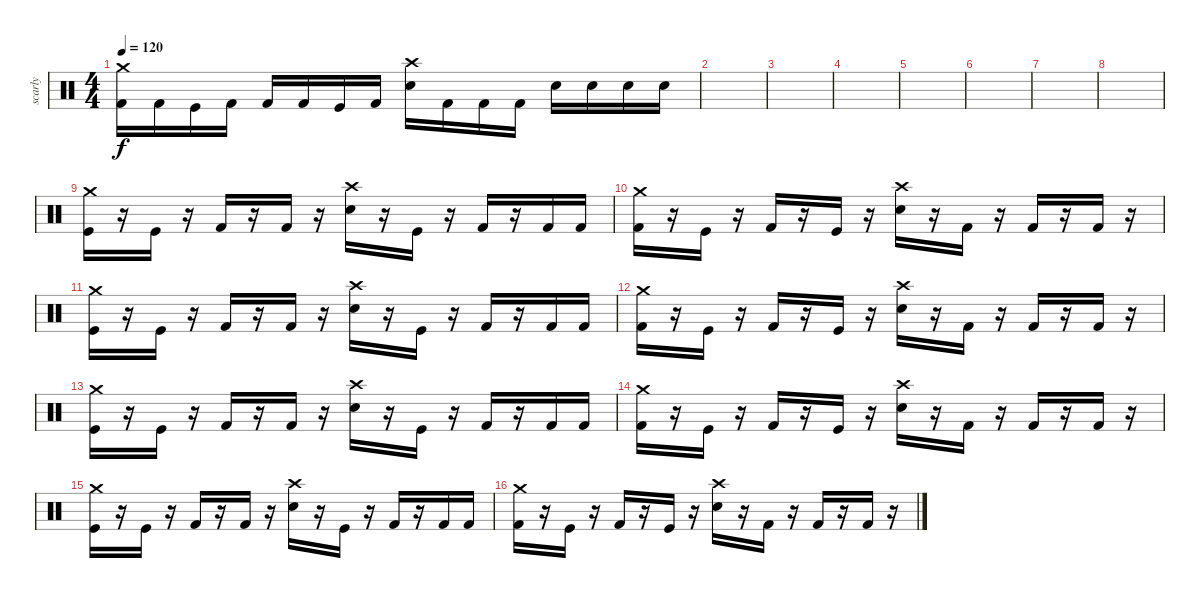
\track ("scarly" "scarly") {instrument percussion}
\staff {score}
\articulation defaults
\ts (4 4)
\tempo 120
\clef neutral
\ks c
("Kick (hit) 2" "Crash medium (hit)").16{dy f} "Kick (hit) 2".16 "Kick (hit)".16 "Kick (hit) 2".16 "Kick (hit) 2".16 "Kick (hit) 2".16 "Kick (hit)".16 "Kick (hit) 2".16 ("Snare (hit) 2" "Crash high (hit)").16 "Kick (hit) 2".16 "Kick (hit) 2".16 "Kick (hit) 2".16 "Snare (hit) 2".16 "Snare (hit) 2".16 "Snare (hit) 2".16 "Snare (hit) 2".16 |
|
|
|
|
|
|
|
("Kick (hit)" "Crash medium (hit)").16 r.16 "Kick (hit)".16 r.16 "Kick (hit) 2".16 r.16 "Kick (hit) 2".16 r.16 ("Snare (hit) 2" "Crash high (hit)").16 r.16 "Kick (hit)".16 r.16 "Kick (hit) 2".16 r.16 "Kick (hit) 2".16 "Kick (hit) 2".16 |
("Kick (hit) 2" "Crash medium (hit)").16 r.16 "Kick (hit)".16 r.16 "Kick (hit) 2".16 r.16 "Kick (hit)".16 r.16 ("Snare (hit) 2" "Crash high (hit)").16 r.16 "Kick (hit) 2".16 r.16 "Kick (hit) 2".16 r.16 "Kick (hit) 2".16 r.16 |
("Kick (hit)" "Crash medium (hit)").16 r.16 "Kick (hit)".16 r.16 "Kick (hit) 2".16 r.16 "Kick (hit) 2".16 r.16 ("Snare (hit) 2" "Crash high (hit)").16 r.16 "Kick (hit)".16 r.16 "Kick (hit) 2".16 r.16 "Kick (hit) 2".16 "Kick (hit) 2".16 |
("Kick (hit) 2" "Crash medium (hit)").16 r.16 "Kick (hit)".16 r.16 "Kick (hit) 2".16 r.16 "Kick (hit)".16 r.16 ("Snare (hit) 2" "Crash high (hit)").16 r.16 "Kick (hit) 2".16 r.16 "Kick (hit) 2".16 r.16 "Kick (hit) 2".16 r.16 |
("Kick (hit)" "Crash medium (hit)").16 r.16 "Kick (hit)".16 r.16 "Kick (hit) 2".16 r.16 "Kick (hit) 2".16 r.16 ("Snare (hit) 2" "Crash high (hit)").16 r.16 "Kick (hit)".16 r.16 "Kick (hit) 2".16 r.16 "Kick (hit) 2".16 "Kick (hit) 2".16 |
("Kick (hit) 2" "Crash medium (hit)").16 r.16 "Kick (hit)".16 r.16 "Kick (hit) 2".16 r.16 "Kick (hit)".16 r.16 ("Snare (hit) 2" "Crash high (hit)").16 r.16 "Kick (hit) 2".16 r.16 "Kick (hit) 2".16 r.16 "Kick (hit) 2".16 r.16 |
("Kick (hit)" "Crash medium (hit)").16 r.16 "Kick (hit)".16 r.16 "Kick (hit) 2".16 r.16 "Kick (hit) 2".16 r.16 ("Snare (hit) 2" "Crash high (hit)").16 r.16 "Kick (hit)".16 r.16 "Kick (hit) 2".16 r.16 "Kick (hit) 2".16 "Kick (hit) 2".16 |
("Kick (hit) 2" "Crash medium (hit)").16 r.16 "Kick (hit)".16 r.16 "Kick (hit) 2".16 r.16 "Kick (hit)".16 r.16 ("Snare (hit) 2" "Crash high (hit)").16 r.16 "Kick (hit) 2".16 r.16 "Kick (hit) 2".16 r.16 "Kick (hit) 2".16 r.16
